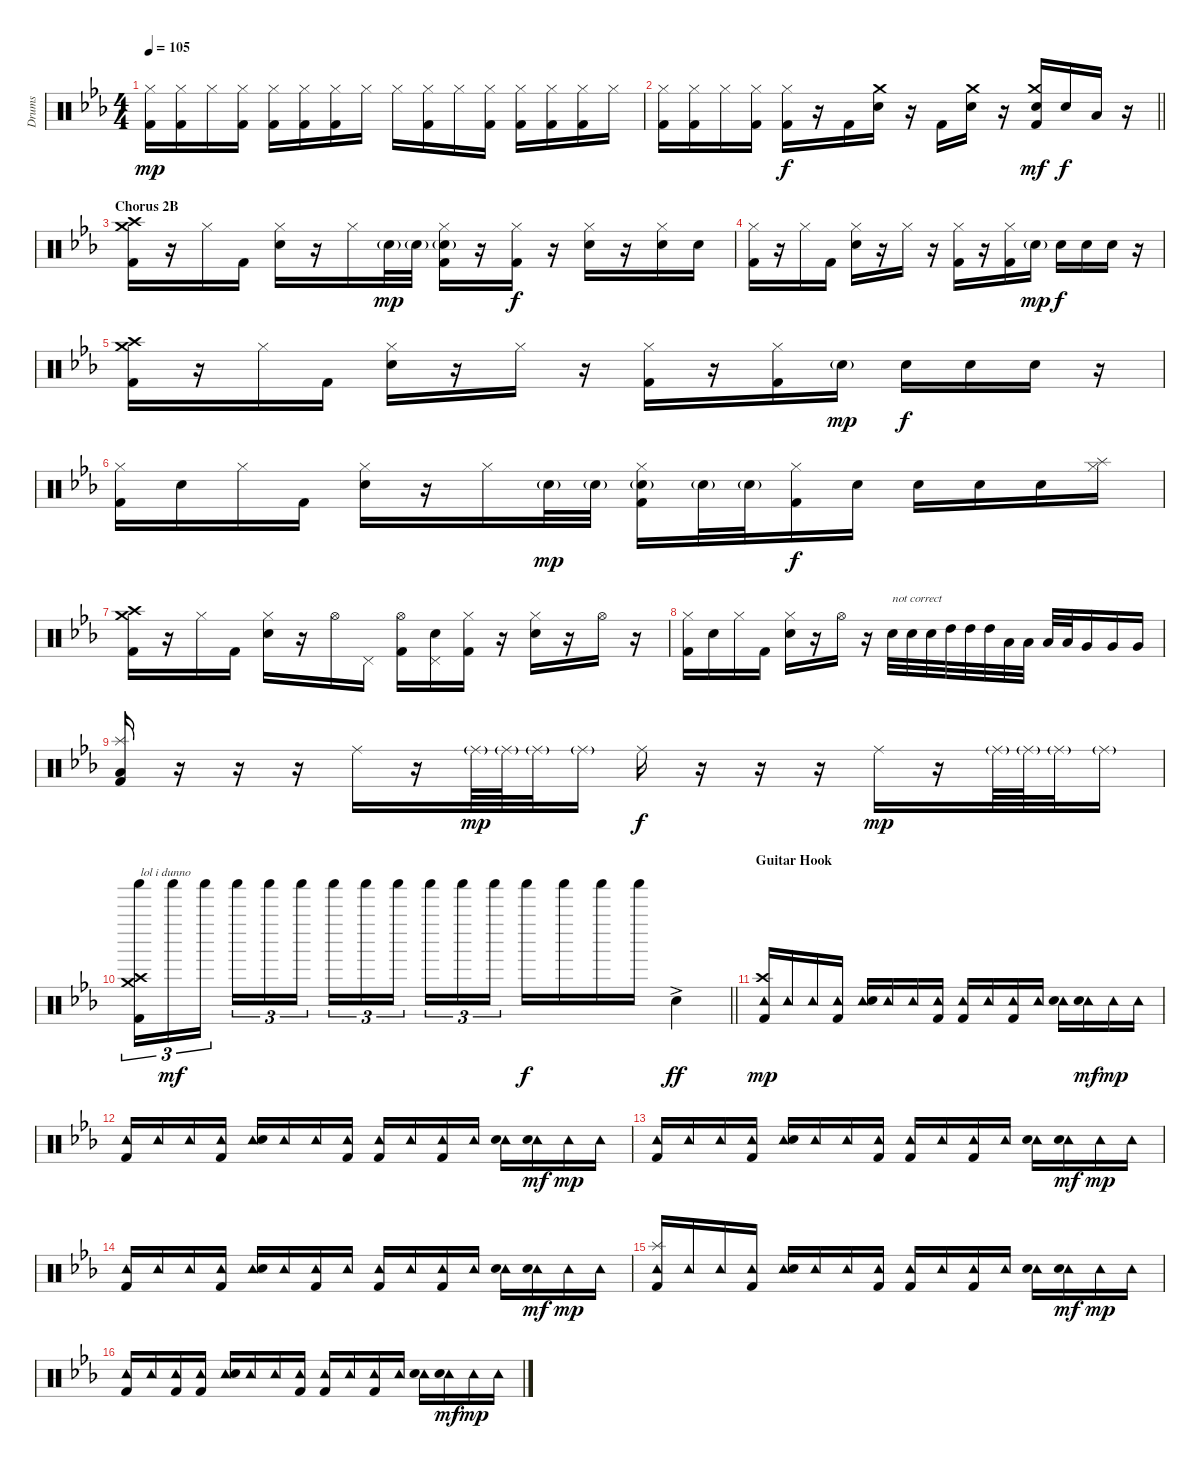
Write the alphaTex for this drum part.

\track ("Drums" "Drums") {instrument percussion}
\staff {score}
\articulation defaults
\ts (4 4)
\tempo 105
\clef neutral
\ks eb
("Hi-Hat (closed)" "Kick (hit) 2").16{dy mp} ("Hi-Hat (closed)" "Kick (hit) 2").16 "Hi-Hat (closed)".16 ("Hi-Hat (closed)" "Kick (hit) 2").16 ("Hi-Hat (closed)" "Kick (hit) 2").16 ("Hi-Hat (closed)" "Kick (hit) 2").16 ("Hi-Hat (closed)" "Kick (hit) 2").16 "Hi-Hat (closed)".16 "Hi-Hat (closed)".16 ("Hi-Hat (closed)" "Kick (hit) 2").16 "Hi-Hat (closed)".16 ("Hi-Hat (closed)" "Kick (hit) 2").16 ("Hi-Hat (closed)" "Kick (hit) 2").16 ("Hi-Hat (closed)" "Kick (hit) 2").16 ("Hi-Hat (closed)" "Kick (hit) 2").16 "Hi-Hat (closed)".16 |
\barLineRight lightlight
("Hi-Hat (closed)" "Kick (hit) 2").16 ("Hi-Hat (closed)" "Kick (hit) 2").16 "Hi-Hat (closed)".16 ("Hi-Hat (closed)" "Kick (hit) 2").16 ("Hi-Hat (closed)" "Kick (hit) 2").16{dy f} r.16 "Kick (hit) 2".16 ("Crash medium (hit)" "Electric Snare (hit)").16 r.16 "Kick (hit) 2".16 ("Crash medium (hit)" "Electric Snare (hit)").16 r.16 ("Crash medium (hit)" "Electric Snare (hit)" "Kick (hit) 2").16{dy mf} "Electric Snare (hit)".16{dy f} "Low Tom (hit)".16 r.16 |
\section ("" "Chorus 2B")
("Crash medium (hit)" "Crash high (hit)" "Kick (hit) 2").16 r.16 "Hi-Hat (closed)".16 "Kick (hit) 2".16 ("Hi-Hat (closed)" "Electric Snare (hit)").16 r.16 "Hi-Hat (closed)".16 "Electric Snare (hit)"{g}.32{dy mp} "Electric Snare (hit)"{g}.32 ("Hi-Hat (closed)" "Electric Snare (hit)"{g} "Kick (hit) 2").16 r.16 ("Hi-Hat (closed)" "Kick (hit) 2").16{dy f} r.16 ("Hi-Hat (closed)" "Electric Snare (hit)").16 r.16 ("Hi-Hat (closed)" "Electric Snare (hit)").16 "Electric Snare (hit)".16 |
("Hi-Hat (closed)" "Kick (hit) 2").16 r.16 "Hi-Hat (closed)".16 "Kick (hit) 2".16 ("Hi-Hat (closed)" "Electric Snare (hit)").16 r.16 "Hi-Hat (closed)".16 r.16 ("Hi-Hat (closed)" "Kick (hit) 2").16 r.16 ("Hi-Hat (closed)" "Kick (hit) 2").16 "Electric Snare (hit)"{g}.16{dy mp} "Electric Snare (hit)".16{dy f} "Electric Snare (hit)".16 "Electric Snare (hit)".16 r.16 |
("Crash medium (hit)" "Crash high (hit)" "Kick (hit) 2").16 r.16 "Hi-Hat (closed)".16 "Kick (hit) 2".16 ("Hi-Hat (closed)" "Electric Snare (hit)").16 r.16 "Hi-Hat (closed)".16 r.16 ("Hi-Hat (closed)" "Kick (hit) 2").16 r.16 ("Hi-Hat (closed)" "Kick (hit) 2").16 "Electric Snare (hit)"{g}.16{dy mp} "Electric Snare (hit)".16{dy f} "Electric Snare (hit)".16 "Electric Snare (hit)".16 r.16 |
("Hi-Hat (closed)" "Kick (hit) 2").16 "Electric Snare (hit)".16 "Hi-Hat (closed)".16 "Kick (hit) 2".16 ("Hi-Hat (closed)" "Electric Snare (hit)").16 r.16 "Hi-Hat (closed)".16 "Electric Snare (hit)"{g}.32{dy mp} "Electric Snare (hit)"{g}.32 ("Hi-Hat (closed)" "Electric Snare (hit)"{g} "Kick (hit) 2").16 "Electric Snare (hit)"{g}.32 "Electric Snare (hit)"{g}.32 ("Hi-Hat (closed)" "Kick (hit) 2").16{dy f} "Electric Snare (hit)".16 "Electric Snare (hit)".16 "Electric Snare (hit)".16 "Electric Snare (hit)".16 ("Splash (hit)" "Hi-Hat (closed)").16 |
("Crash medium (hit)" "Crash high (hit)" "Kick (hit) 2").16 r.16 "Hi-Hat (closed)".16 "Kick (hit) 2".16 ("Hi-Hat (closed)" "Electric Snare (hit)").16 r.16 "Hi-Hat (open)".16 "Pedal Hi-Hat (hit)".16 ("Hi-Hat (open)" "Kick (hit) 2").16 ("Pedal Hi-Hat (hit)" "Electric Snare (hit)").16 ("Hi-Hat (closed)" "Kick (hit) 2").16 r.16 ("Hi-Hat (closed)" "Electric Snare (hit)").16 r.16 "Hi-Hat (open)".16 r.16 |
("Hi-Hat (closed)" "Kick (hit) 2").16 "Electric Snare (hit)".16 "Hi-Hat (closed)".16 "Kick (hit) 2".16 ("Hi-Hat (closed)" "Electric Snare (hit)").16 r.16 "Hi-Hat (open)".16 r.16 "Electric Snare (hit)".32{txt "not correct"} "Electric Snare (hit)".32 "Electric Snare (hit)".32 "High Tom (hit)".32 "High Tom (hit)".32 "High Tom (hit)".32 "Low Tom (hit)".32 "Low Tom (hit)".32 "Low Tom (hit)".32 "Low Tom (hit)".32 "Very Low Tom (hit)".16 "Very Low Tom (hit)".16 "Very Low Tom (hit)".16 |
("Splash (hit)" "Low Floor Tom (hit)" "Kick (hit) 2").16 r.16 r.16 r.16 "Ride (middle)".16 r.16 "Ride (middle)"{g}.64{dy mp} "Ride (middle)"{g}.64 "Ride (middle)"{g}.32 "Ride (middle)"{g}.16 "Ride (middle)".16{dy f} r.16 r.16 r.16 "Ride (middle)".16{dy mp} r.16 "Ride (middle)"{g}.64 "Ride (middle)"{g}.64 "Ride (middle)"{g}.32 "Ride (middle)"{g}.16 |
\barLineRight lightlight
("Crash high (hit)" "Shaker (hit)" "Crash medium (hit)" "Kick (hit) 2").16{tu (3 2) txt "lol i dunno"} "Shaker (hit)".16{tu (3 2) dy mf} "Shaker (hit)".16{tu (3 2) beam splitsecondary} "Shaker (hit)".16{tu (3 2)} "Shaker (hit)".16{tu (3 2)} "Shaker (hit)".16{tu (3 2)} "Shaker (hit)".16{tu (3 2)} "Shaker (hit)".16{tu (3 2)} "Shaker (hit)".16{tu (3 2) beam splitsecondary} "Shaker (hit)".16{tu (3 2)} "Shaker (hit)".16{tu (3 2)} "Shaker (hit)".16{tu (3 2)} "Shaker (hit)".16{dy f} "Shaker (hit)".16 "Shaker (hit)".16 "Shaker (hit)".16 "Electric Snare (hit)"{ac}.4{dy ff} |
\section ("" "Guitar Hook")
("Crash high (hit)" "Tambourine (hit)" "Kick (hit) 2").16{dy mp} "Tambourine (hit)".16 "Tambourine (hit)".16 ("Tambourine (hit)" "Kick (hit) 2").16 ("Tambourine (hit)" "Electric Snare (hit)").16 "Tambourine (hit)".16 "Tambourine (hit)".16 ("Tambourine (hit)" "Kick (hit) 2").16 ("Tambourine (hit)" "Kick (hit) 2").16 "Tambourine (hit)".16 ("Tambourine (hit)" "Kick (hit) 2").16 "Tambourine (hit)".16 ("Tambourine (hit)" "Electric Snare (hit)").16 ("Tambourine (hit)" "Electric Snare (hit)").16{dy mf} "Tambourine (hit)".16{dy mp} "Tambourine (hit)".16 |
("Tambourine (hit)" "Kick (hit) 2").16 "Tambourine (hit)".16 "Tambourine (hit)".16 ("Tambourine (hit)" "Kick (hit) 2").16 ("Tambourine (hit)" "Electric Snare (hit)").16 "Tambourine (hit)".16 "Tambourine (hit)".16 ("Tambourine (hit)" "Kick (hit) 2").16 ("Tambourine (hit)" "Kick (hit) 2").16 "Tambourine (hit)".16 ("Tambourine (hit)" "Kick (hit) 2").16 "Tambourine (hit)".16 ("Tambourine (hit)" "Electric Snare (hit)").16 ("Tambourine (hit)" "Electric Snare (hit)").16{dy mf} "Tambourine (hit)".16{dy mp} "Tambourine (hit)".16 |
("Tambourine (hit)" "Kick (hit) 2").16 "Tambourine (hit)".16 "Tambourine (hit)".16 ("Tambourine (hit)" "Kick (hit) 2").16 ("Tambourine (hit)" "Electric Snare (hit)").16 "Tambourine (hit)".16 "Tambourine (hit)".16 ("Tambourine (hit)" "Kick (hit) 2").16 ("Tambourine (hit)" "Kick (hit) 2").16 "Tambourine (hit)".16 ("Tambourine (hit)" "Kick (hit) 2").16 "Tambourine (hit)".16 ("Tambourine (hit)" "Electric Snare (hit)").16 ("Tambourine (hit)" "Electric Snare (hit)").16{dy mf} "Tambourine (hit)".16{dy mp} "Tambourine (hit)".16 |
("Tambourine (hit)" "Kick (hit) 2").16 "Tambourine (hit)".16 "Tambourine (hit)".16 ("Tambourine (hit)" "Kick (hit) 2").16 ("Tambourine (hit)" "Electric Snare (hit)").16 "Tambourine (hit)".16 ("Tambourine (hit)" "Kick (hit) 2").16 "Tambourine (hit)".16 ("Tambourine (hit)" "Kick (hit) 2").16 "Tambourine (hit)".16 ("Tambourine (hit)" "Kick (hit) 2").16 "Tambourine (hit)".16 ("Tambourine (hit)" "Electric Snare (hit)").16 ("Tambourine (hit)" "Electric Snare (hit)").16{dy mf} "Tambourine (hit)".16{dy mp} "Tambourine (hit)".16 |
("Splash (hit)" "Tambourine (hit)" "Kick (hit) 2").16 "Tambourine (hit)".16 "Tambourine (hit)".16 ("Tambourine (hit)" "Kick (hit) 2").16 ("Tambourine (hit)" "Electric Snare (hit)").16 "Tambourine (hit)".16 "Tambourine (hit)".16 ("Tambourine (hit)" "Kick (hit) 2").16 ("Tambourine (hit)" "Kick (hit) 2").16 "Tambourine (hit)".16 ("Tambourine (hit)" "Kick (hit) 2").16 "Tambourine (hit)".16 ("Tambourine (hit)" "Electric Snare (hit)").16 ("Tambourine (hit)" "Electric Snare (hit)").16{dy mf} "Tambourine (hit)".16{dy mp} "Tambourine (hit)".16 |
("Tambourine (hit)" "Kick (hit) 2").16 "Tambourine (hit)".16 ("Tambourine (hit)" "Kick (hit) 2").16 ("Tambourine (hit)" "Kick (hit) 2").16 ("Tambourine (hit)" "Electric Snare (hit)").16 "Tambourine (hit)".16 "Tambourine (hit)".16 ("Tambourine (hit)" "Kick (hit) 2").16 ("Tambourine (hit)" "Kick (hit) 2").16 "Tambourine (hit)".16 ("Tambourine (hit)" "Kick (hit) 2").16 "Tambourine (hit)".16 ("Tambourine (hit)" "Electric Snare (hit)").16 ("Tambourine (hit)" "Electric Snare (hit)").16{dy mf} "Tambourine (hit)".16{dy mp} "Tambourine (hit)".16
